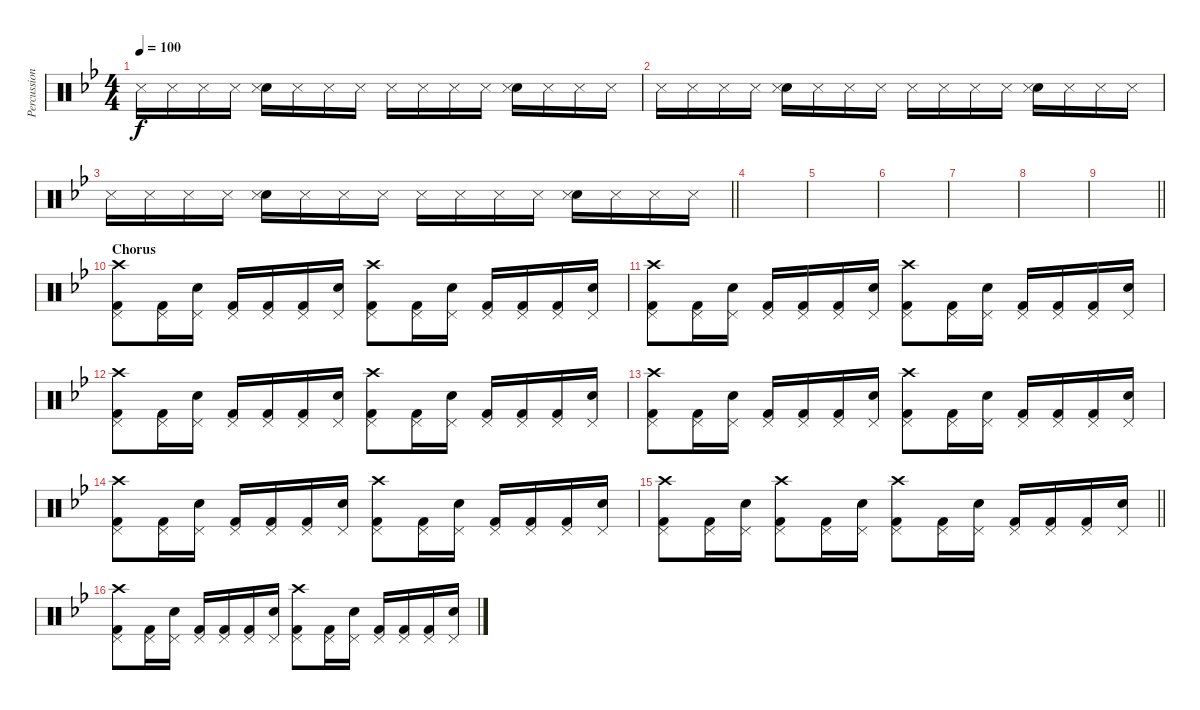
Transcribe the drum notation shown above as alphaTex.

\track ("Percussion" "Percussion") {instrument percussion}
\staff {score}
\articulation defaults
\ts (4 4)
\tempo 100
\clef neutral
\ks bb "Snare (side stick) 3".16{dy f} "Snare (side stick) 3".16 "Snare (side stick) 3".16 "Snare (side stick) 3".16
("Snare (hit) 2" "Snare (side stick) 3").16 "Snare (side stick) 3".16 "Snare (side stick) 3".16 "Snare (side stick) 3".16 "Snare (side stick) 3".16 "Snare (side stick) 3".16 "Snare (side stick) 3".16 "Snare (side stick) 3".16 ("Snare (hit) 2" "Snare (side stick) 3").16 "Snare (side stick) 3".16 "Snare (side stick) 3".16 "Snare (side stick) 3".16 |
"Snare (side stick) 3".16 "Snare (side stick) 3".16 "Snare (side stick) 3".16 "Snare (side stick) 3".16 ("Snare (hit) 2" "Snare (side stick) 3").16 "Snare (side stick) 3".16 "Snare (side stick) 3".16 "Snare (side stick) 3".16 "Snare (side stick) 3".16 "Snare (side stick) 3".16 "Snare (side stick) 3".16 "Snare (side stick) 3".16 ("Snare (hit) 2" "Snare (side stick) 3").16 "Snare (side stick) 3".16 "Snare (side stick) 3".16 "Snare (side stick) 3".16 |
\barLineRight lightlight "Snare (side stick) 3".16 "Snare (side stick) 3".16 "Snare (side stick) 3".16 "Snare (side stick) 3".16
("Snare (hit) 2" "Snare (side stick) 3").16 "Snare (side stick) 3".16 "Snare (side stick) 3".16 "Snare (side stick) 3".16 "Snare (side stick) 3".16 "Snare (side stick) 3".16 "Snare (side stick) 3".16 "Snare (side stick) 3".16 ("Snare (hit) 2" "Snare (side stick) 3").16 "Snare (side stick) 3".16 "Snare (side stick) 3".16 "Snare (side stick) 3".16 |
\section ("" "")
|
|
|
|
|
\barLineRight lightlight
|
\section ("" "Chorus")
("Crash high (hit)" "Pedal Hi-Hat (hit)" "Kick (hit) 2").8 ("Pedal Hi-Hat (hit)" "Kick (hit) 2").16 ("Electric Snare (hit)" "Pedal Hi-Hat (hit)").16 ("Pedal Hi-Hat (hit)" "Kick (hit) 2").16 ("Pedal Hi-Hat (hit)" "Kick (hit) 2").16 ("Pedal Hi-Hat (hit)" "Kick (hit) 2").16 ("Electric Snare (hit)" "Pedal Hi-Hat (hit)").16 ("Crash high (hit)" "Pedal Hi-Hat (hit)" "Kick (hit) 2").8 ("Pedal Hi-Hat (hit)" "Kick (hit) 2").16 ("Electric Snare (hit)" "Pedal Hi-Hat (hit)").16 ("Pedal Hi-Hat (hit)" "Kick (hit) 2").16 ("Pedal Hi-Hat (hit)" "Kick (hit) 2").16 ("Pedal Hi-Hat (hit)" "Kick (hit) 2").16 ("Electric Snare (hit)" "Pedal Hi-Hat (hit)").16 |
("Crash high (hit)" "Pedal Hi-Hat (hit)" "Kick (hit) 2").8 ("Pedal Hi-Hat (hit)" "Kick (hit) 2").16 ("Electric Snare (hit)" "Pedal Hi-Hat (hit)").16 ("Pedal Hi-Hat (hit)" "Kick (hit) 2").16 ("Pedal Hi-Hat (hit)" "Kick (hit) 2").16 ("Pedal Hi-Hat (hit)" "Kick (hit) 2").16 ("Electric Snare (hit)" "Pedal Hi-Hat (hit)").16 ("Crash high (hit)" "Pedal Hi-Hat (hit)" "Kick (hit) 2").8 ("Pedal Hi-Hat (hit)" "Kick (hit) 2").16 ("Electric Snare (hit)" "Pedal Hi-Hat (hit)").16 ("Pedal Hi-Hat (hit)" "Kick (hit) 2").16 ("Pedal Hi-Hat (hit)" "Kick (hit) 2").16 ("Pedal Hi-Hat (hit)" "Kick (hit) 2").16 ("Electric Snare (hit)" "Pedal Hi-Hat (hit)").16 |
("Crash high (hit)" "Pedal Hi-Hat (hit)" "Kick (hit) 2").8 ("Pedal Hi-Hat (hit)" "Kick (hit) 2").16 ("Electric Snare (hit)" "Pedal Hi-Hat (hit)").16 ("Pedal Hi-Hat (hit)" "Kick (hit) 2").16 ("Pedal Hi-Hat (hit)" "Kick (hit) 2").16 ("Pedal Hi-Hat (hit)" "Kick (hit) 2").16 ("Electric Snare (hit)" "Pedal Hi-Hat (hit)").16 ("Crash high (hit)" "Pedal Hi-Hat (hit)" "Kick (hit) 2").8 ("Pedal Hi-Hat (hit)" "Kick (hit) 2").16 ("Electric Snare (hit)" "Pedal Hi-Hat (hit)").16 ("Pedal Hi-Hat (hit)" "Kick (hit) 2").16 ("Pedal Hi-Hat (hit)" "Kick (hit) 2").16 ("Pedal Hi-Hat (hit)" "Kick (hit) 2").16 ("Electric Snare (hit)" "Pedal Hi-Hat (hit)").16 |
("Crash high (hit)" "Pedal Hi-Hat (hit)" "Kick (hit) 2").8 ("Pedal Hi-Hat (hit)" "Kick (hit) 2").16 ("Electric Snare (hit)" "Pedal Hi-Hat (hit)").16 ("Pedal Hi-Hat (hit)" "Kick (hit) 2").16 ("Pedal Hi-Hat (hit)" "Kick (hit) 2").16 ("Pedal Hi-Hat (hit)" "Kick (hit) 2").16 ("Electric Snare (hit)" "Pedal Hi-Hat (hit)").16 ("Crash high (hit)" "Pedal Hi-Hat (hit)" "Kick (hit) 2").8 ("Pedal Hi-Hat (hit)" "Kick (hit) 2").16 ("Electric Snare (hit)" "Pedal Hi-Hat (hit)").16 ("Pedal Hi-Hat (hit)" "Kick (hit) 2").16 ("Pedal Hi-Hat (hit)" "Kick (hit) 2").16 ("Pedal Hi-Hat (hit)" "Kick (hit) 2").16 ("Electric Snare (hit)" "Pedal Hi-Hat (hit)").16 |
("Crash high (hit)" "Pedal Hi-Hat (hit)" "Kick (hit) 2").8 ("Pedal Hi-Hat (hit)" "Kick (hit) 2").16 ("Electric Snare (hit)" "Pedal Hi-Hat (hit)").16 ("Pedal Hi-Hat (hit)" "Kick (hit) 2").16 ("Pedal Hi-Hat (hit)" "Kick (hit) 2").16 ("Pedal Hi-Hat (hit)" "Kick (hit) 2").16 ("Electric Snare (hit)" "Pedal Hi-Hat (hit)").16 ("Crash high (hit)" "Pedal Hi-Hat (hit)" "Kick (hit) 2").8 ("Pedal Hi-Hat (hit)" "Kick (hit) 2").16 ("Electric Snare (hit)" "Pedal Hi-Hat (hit)").16 ("Pedal Hi-Hat (hit)" "Kick (hit) 2").16 ("Pedal Hi-Hat (hit)" "Kick (hit) 2").16 ("Pedal Hi-Hat (hit)" "Kick (hit) 2").16 ("Electric Snare (hit)" "Pedal Hi-Hat (hit)").16 |
\barLineRight lightlight
("Crash high (hit)" "Pedal Hi-Hat (hit)" "Kick (hit) 2").8 ("Pedal Hi-Hat (hit)" "Kick (hit) 2").16 ("Electric Snare (hit)" "Pedal Hi-Hat (hit)").16 ("Crash high (hit)" "Pedal Hi-Hat (hit)" "Kick (hit) 2").8 ("Pedal Hi-Hat (hit)" "Kick (hit) 2").16 ("Electric Snare (hit)" "Pedal Hi-Hat (hit)").16 ("Crash high (hit)" "Pedal Hi-Hat (hit)" "Kick (hit) 2").8 ("Pedal Hi-Hat (hit)" "Kick (hit) 2").16 ("Electric Snare (hit)" "Pedal Hi-Hat (hit)").16 ("Pedal Hi-Hat (hit)" "Kick (hit) 2").16 ("Pedal Hi-Hat (hit)" "Kick (hit) 2").16 ("Pedal Hi-Hat (hit)" "Kick (hit) 2").16 ("Electric Snare (hit)" "Pedal Hi-Hat (hit)").16 |
("Crash high (hit)" "Pedal Hi-Hat (hit)" "Kick (hit) 2").8 ("Pedal Hi-Hat (hit)" "Kick (hit) 2").16 ("Electric Snare (hit)" "Pedal Hi-Hat (hit)").16 ("Pedal Hi-Hat (hit)" "Kick (hit) 2").16 ("Pedal Hi-Hat (hit)" "Kick (hit) 2").16 ("Pedal Hi-Hat (hit)" "Kick (hit) 2").16 ("Electric Snare (hit)" "Pedal Hi-Hat (hit)").16 ("Crash high (hit)" "Pedal Hi-Hat (hit)" "Kick (hit) 2").8 ("Pedal Hi-Hat (hit)" "Kick (hit) 2").16 ("Electric Snare (hit)" "Pedal Hi-Hat (hit)").16 ("Pedal Hi-Hat (hit)" "Kick (hit) 2").16 ("Pedal Hi-Hat (hit)" "Kick (hit) 2").16 ("Pedal Hi-Hat (hit)" "Kick (hit) 2").16 ("Electric Snare (hit)" "Pedal Hi-Hat (hit)").16
